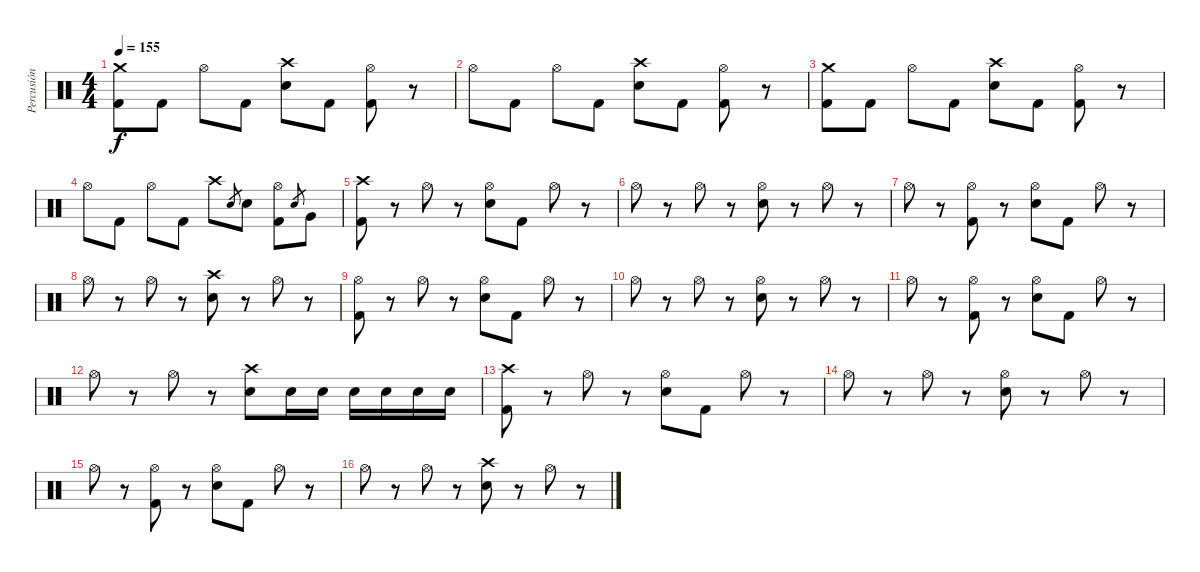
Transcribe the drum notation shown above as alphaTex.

\track ("Percusión" "Percusión") {instrument percussion}
\staff {score}
\articulation defaults
\ts (4 4)
\tempo 155
\clef neutral
\ks c
("Crash medium (hit)" "Kick (hit) 2").8{dy f} "Kick (hit) 2".8 "Hi-Hat (open)".8 "Kick (hit) 2".8 ("Crash high (hit)" "Electric Snare (hit)").8 "Kick (hit) 2".8 ("Hi-Hat (open)" "Kick (hit) 2").8 r.8 |
"Hi-Hat (open)".8 "Kick (hit) 2".8 "Hi-Hat (open)".8 "Kick (hit) 2".8 ("Crash high (hit)" "Electric Snare (hit)").8 "Kick (hit) 2".8 ("Hi-Hat (open)" "Kick (hit) 2").8 r.8 |
("Crash medium (hit)" "Kick (hit) 2").8 "Kick (hit) 2".8 "Hi-Hat (open)".8 "Kick (hit) 2".8 ("Crash high (hit)" "Electric Snare (hit)").8 "Kick (hit) 2".8 ("Hi-Hat (open)" "Kick (hit) 2").8 r.8 |
"Hi-Hat (open)".8 "Kick (hit) 2".8 "Hi-Hat (open)".8 "Kick (hit) 2".8 "Crash high (hit)".8 "Electric Snare (hit)".8{gr} "Electric Snare (hit)".8 ("Hi-Hat (open)" "Kick (hit) 2").8 "Electric Snare (hit)".8{gr} "Very Low Tom (hit)".8 |
("Crash high (hit)" "Kick (hit) 2").8 r.8 "Hi-Hat (open)".8 r.8 ("Hi-Hat (open)" "Electric Snare (hit)").8 "Kick (hit) 2".8 "Hi-Hat (open)".8 r.8 |
"Hi-Hat (open)".8 r.8 "Hi-Hat (open)".8 r.8 ("Hi-Hat (open)" "Electric Snare (hit)").8 r.8 "Hi-Hat (open)".8 r.8 |
"Hi-Hat (open)".8 r.8 ("Hi-Hat (open)" "Kick (hit) 2").8 r.8 ("Hi-Hat (open)" "Electric Snare (hit)").8 "Kick (hit) 2".8 "Hi-Hat (open)".8 r.8 |
"Hi-Hat (open)".8 r.8 "Hi-Hat (open)".8 r.8 ("Crash high (hit)" "Electric Snare (hit)").8 r.8 "Hi-Hat (open)".8 r.8 |
("Hi-Hat (open)" "Kick (hit) 2").8 r.8 "Hi-Hat (open)".8 r.8 ("Hi-Hat (open)" "Electric Snare (hit)").8 "Kick (hit) 2".8 "Hi-Hat (open)".8 r.8 |
"Hi-Hat (open)".8 r.8 "Hi-Hat (open)".8 r.8 ("Hi-Hat (open)" "Electric Snare (hit)").8 r.8 "Hi-Hat (open)".8 r.8 |
"Hi-Hat (open)".8 r.8 ("Hi-Hat (open)" "Kick (hit) 2").8 r.8 ("Hi-Hat (open)" "Electric Snare (hit)").8 "Kick (hit) 2".8 "Hi-Hat (open)".8 r.8 |
"Hi-Hat (open)".8 r.8 "Hi-Hat (open)".8 r.8 ("Crash high (hit)" "Electric Snare (hit)").8 "Electric Snare (hit)".16 "Electric Snare (hit)".16 "Electric Snare (hit)".16 "Electric Snare (hit)".16 "Electric Snare (hit)".16 "Electric Snare (hit)".16 |
("Crash high (hit)" "Kick (hit) 2").8 r.8 "Hi-Hat (open)".8 r.8 ("Hi-Hat (open)" "Electric Snare (hit)").8 "Kick (hit) 2".8 "Hi-Hat (open)".8 r.8 |
"Hi-Hat (open)".8 r.8 "Hi-Hat (open)".8 r.8 ("Hi-Hat (open)" "Electric Snare (hit)").8 r.8 "Hi-Hat (open)".8 r.8 |
"Hi-Hat (open)".8 r.8 ("Hi-Hat (open)" "Kick (hit) 2").8 r.8 ("Hi-Hat (open)" "Electric Snare (hit)").8 "Kick (hit) 2".8 "Hi-Hat (open)".8 r.8 |
"Hi-Hat (open)".8 r.8 "Hi-Hat (open)".8 r.8 ("Crash high (hit)" "Electric Snare (hit)").8 r.8 "Hi-Hat (open)".8 r.8
